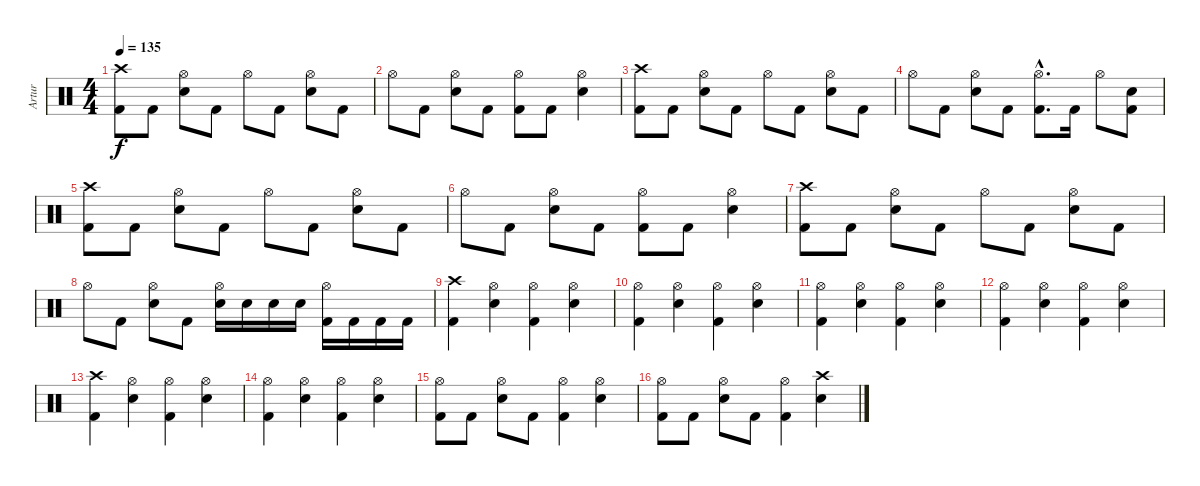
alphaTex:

\track ("Artur" "Artur") {instrument percussion}
\staff {score}
\articulation defaults
\ts (4 4)
\tempo 135
\clef neutral
\ks c
("Crash high (hit)" "Kick (hit) 2").8{dy f} "Kick (hit) 2".8 ("Hi-Hat (open)" "Electric Snare (hit)").8 "Kick (hit) 2".8 "Hi-Hat (open)".8 "Kick (hit) 2".8 ("Hi-Hat (open)" "Electric Snare (hit)").8 "Kick (hit) 2".8 |
"Hi-Hat (open)".8 "Kick (hit) 2".8 ("Hi-Hat (open)" "Electric Snare (hit)").8 "Kick (hit) 2".8 ("Hi-Hat (open)" "Kick (hit) 2").8 "Kick (hit) 2".8 ("Hi-Hat (open)" "Electric Snare (hit)").4 |
("Crash high (hit)" "Kick (hit) 2").8 "Kick (hit) 2".8 ("Hi-Hat (open)" "Electric Snare (hit)").8 "Kick (hit) 2".8 "Hi-Hat (open)".8 "Kick (hit) 2".8 ("Hi-Hat (open)" "Electric Snare (hit)").8 "Kick (hit) 2".8 |
"Hi-Hat (open)".8 "Kick (hit) 2".8 ("Hi-Hat (open)" "Electric Snare (hit)").8 "Kick (hit) 2".8 ("Hi-Hat (open)"{hac} "Kick (hit) 2"{hac}).8{d} "Kick (hit) 2".16 "Hi-Hat (open)".8 ("Electric Snare (hit)" "Kick (hit) 2").8 |
("Crash high (hit)" "Kick (hit) 2").8 "Kick (hit) 2".8 ("Hi-Hat (open)" "Electric Snare (hit)").8 "Kick (hit) 2".8 "Hi-Hat (open)".8 "Kick (hit) 2".8 ("Hi-Hat (open)" "Electric Snare (hit)").8 "Kick (hit) 2".8 |
"Hi-Hat (open)".8 "Kick (hit) 2".8 ("Hi-Hat (open)" "Electric Snare (hit)").8 "Kick (hit) 2".8 ("Hi-Hat (open)" "Kick (hit) 2").8 "Kick (hit) 2".8 ("Hi-Hat (open)" "Electric Snare (hit)").4 |
("Crash high (hit)" "Kick (hit) 2").8 "Kick (hit) 2".8 ("Hi-Hat (open)" "Electric Snare (hit)").8 "Kick (hit) 2".8 "Hi-Hat (open)".8 "Kick (hit) 2".8 ("Hi-Hat (open)" "Electric Snare (hit)").8 "Kick (hit) 2".8 |
"Hi-Hat (open)".8 "Kick (hit) 2".8 ("Hi-Hat (open)" "Electric Snare (hit)").8 "Kick (hit) 2".8 ("Hi-Hat (open)" "Electric Snare (hit)").16 "Electric Snare (hit)".16 "Electric Snare (hit)".16 "Electric Snare (hit)".16 ("Hi-Hat (open)" "Kick (hit) 2").16 "Kick (hit) 2".16 "Kick (hit) 2".16 "Kick (hit) 2".16 |
("Crash high (hit)" "Kick (hit) 2").4 ("Hi-Hat (open)" "Electric Snare (hit)").4 ("Hi-Hat (open)" "Kick (hit) 2").4 ("Hi-Hat (open)" "Electric Snare (hit)").4 |
("Hi-Hat (open)" "Kick (hit) 2").4 ("Hi-Hat (open)" "Electric Snare (hit)").4 ("Hi-Hat (open)" "Kick (hit) 2").4 ("Hi-Hat (open)" "Electric Snare (hit)").4 |
("Hi-Hat (open)" "Kick (hit) 2").4 ("Hi-Hat (open)" "Electric Snare (hit)").4 ("Hi-Hat (open)" "Kick (hit) 2").4 ("Hi-Hat (open)" "Electric Snare (hit)").4 |
("Hi-Hat (open)" "Kick (hit) 2").4 ("Hi-Hat (open)" "Electric Snare (hit)").4 ("Hi-Hat (open)" "Kick (hit) 2").4 ("Hi-Hat (open)" "Electric Snare (hit)").4 |
("Crash high (hit)" "Kick (hit) 2").4 ("Hi-Hat (open)" "Electric Snare (hit)").4 ("Hi-Hat (open)" "Kick (hit) 2").4 ("Hi-Hat (open)" "Electric Snare (hit)").4 |
("Hi-Hat (open)" "Kick (hit) 2").4 ("Hi-Hat (open)" "Electric Snare (hit)").4 ("Hi-Hat (open)" "Kick (hit) 2").4 ("Hi-Hat (open)" "Electric Snare (hit)").4 |
("Hi-Hat (open)" "Kick (hit) 2").8 "Kick (hit) 2".8 ("Hi-Hat (open)" "Electric Snare (hit)").8 "Kick (hit) 2".8 ("Hi-Hat (open)" "Kick (hit) 2").4 ("Hi-Hat (open)" "Electric Snare (hit)").4 |
("Hi-Hat (open)" "Kick (hit) 2").8 "Kick (hit) 2".8 ("Hi-Hat (open)" "Electric Snare (hit)").8 "Kick (hit) 2".8 ("Hi-Hat (open)" "Kick (hit) 2").4 ("Crash high (hit)" "Electric Snare (hit)").4
